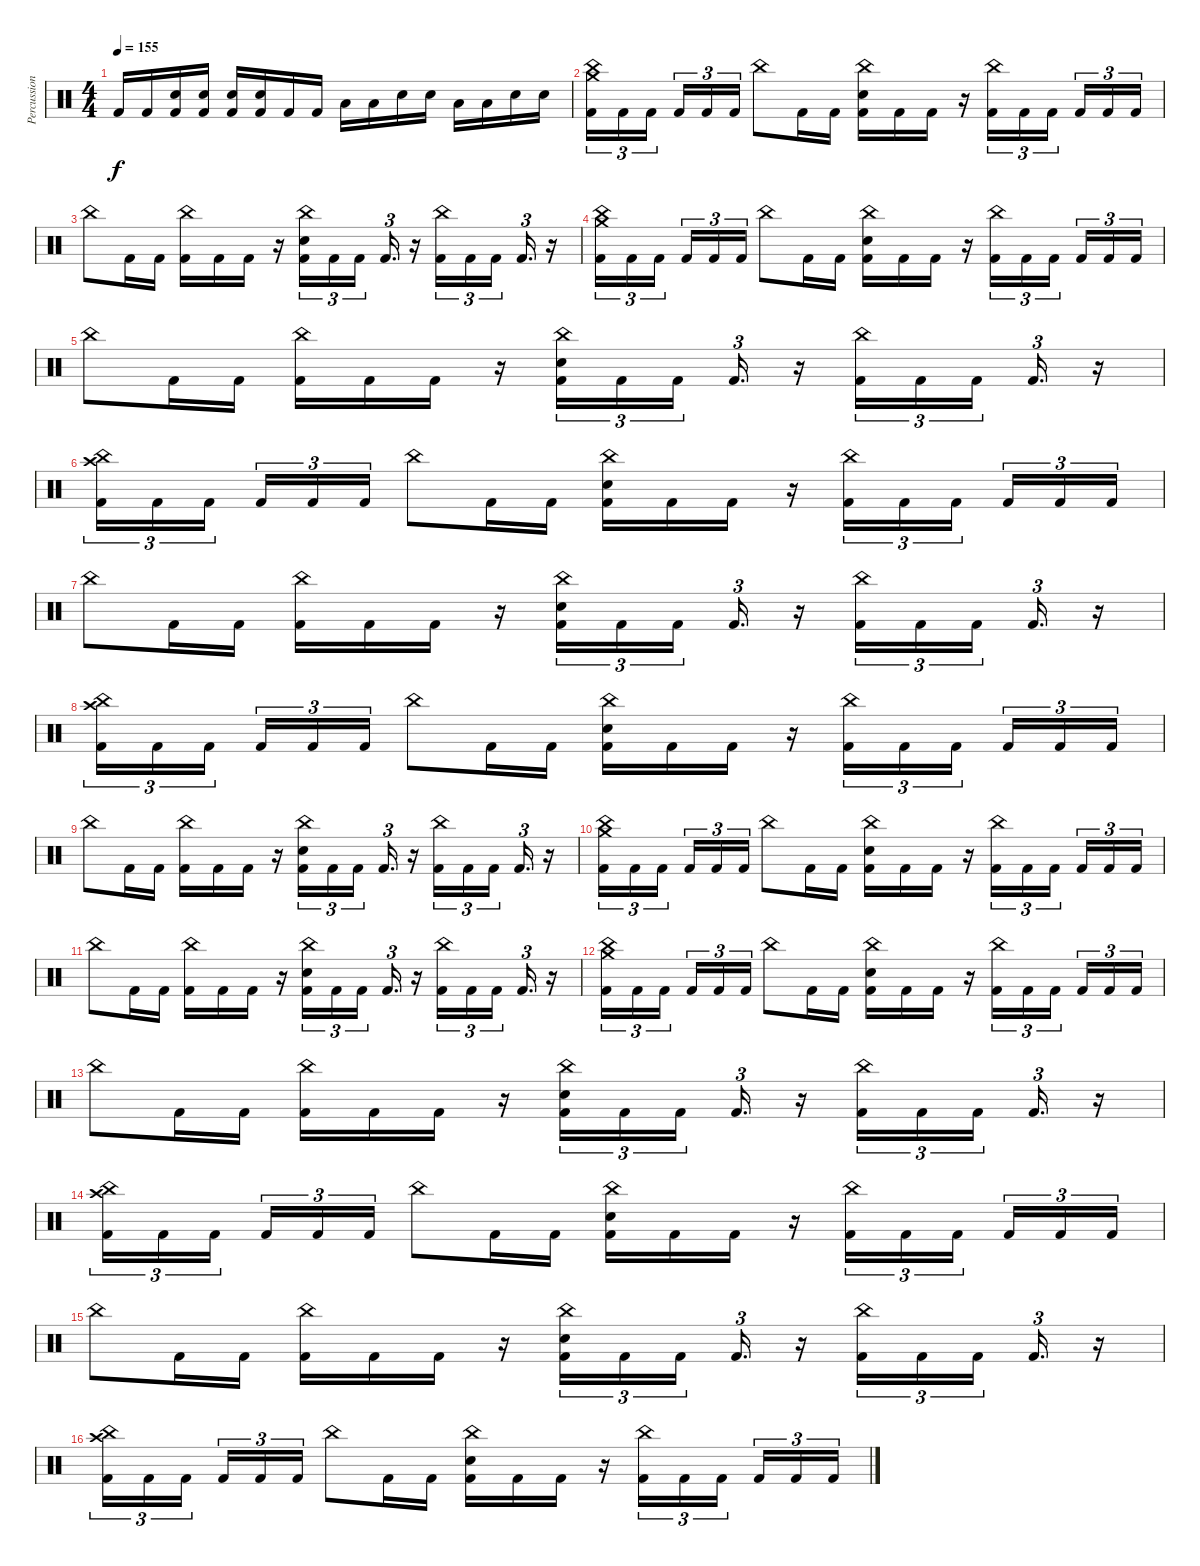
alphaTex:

\track ("Percussion" "Percussion") {instrument percussion}
\staff {score}
\articulation defaults
\ts (4 4)
\tempo 155
\clef neutral
\ks c "Kick (hit) 2".16{dy f} "Kick (hit) 2".16
("Electric Snare (hit)" "Kick (hit) 2").16 ("Electric Snare (hit)" "Kick (hit) 2").16 ("Electric Snare (hit)" "Kick (hit) 2").16 ("Electric Snare (hit)" "Kick (hit) 2").16 "Kick (hit) 2".16 "Kick (hit) 2".16 "Low Tom (hit)".16 "Low Tom (hit)".16 "Electric Snare (hit)".16 "Electric Snare (hit)".16 "Low Tom (hit)".16 "Low Tom (hit)".16 "Electric Snare (hit)".16 "Electric Snare (hit)".16 |
("China (hit)" "Crash medium (hit)" "Kick (hit) 2").16{tu (3 2)} "Kick (hit) 2".16{tu (3 2)} "Kick (hit) 2".16{tu (3 2) beam splitsecondary} "Kick (hit) 2".16{tu (3 2)} "Kick (hit) 2".16{tu (3 2)} "Kick (hit) 2".16{tu (3 2)} "China (hit)".8 "Kick (hit) 2".16 "Kick (hit) 2".16 ("China (hit)" "Electric Snare (hit)" "Kick (hit) 2").16 "Kick (hit) 2".16 "Kick (hit) 2".16 r.16 ("China (hit)" "Kick (hit) 2").16{tu (3 2)} "Kick (hit) 2".16{tu (3 2)} "Kick (hit) 2".16{tu (3 2) beam splitsecondary} "Kick (hit) 2".16{tu (3 2)} "Kick (hit) 2".16{tu (3 2)} "Kick (hit) 2".16{tu (3 2)} |
"China (hit)".8 "Kick (hit) 2".16 "Kick (hit) 2".16 ("China (hit)" "Kick (hit) 2").16 "Kick (hit) 2".16 "Kick (hit) 2".16 r.16 ("China (hit)" "Electric Snare (hit)" "Kick (hit) 2").16{tu (3 2)} "Kick (hit) 2".16{tu (3 2)} "Kick (hit) 2".16{tu (3 2) beam splitsecondary} "Kick (hit) 2".16{d tu (3 2)} r.16 ("China (hit)" "Kick (hit) 2").16{tu (3 2)} "Kick (hit) 2".16{tu (3 2)} "Kick (hit) 2".16{tu (3 2) beam splitsecondary} "Kick (hit) 2".16{d tu (3 2)} r.16 |
("China (hit)" "Crash medium (hit)" "Kick (hit) 2").16{tu (3 2)} "Kick (hit) 2".16{tu (3 2)} "Kick (hit) 2".16{tu (3 2) beam splitsecondary} "Kick (hit) 2".16{tu (3 2)} "Kick (hit) 2".16{tu (3 2)} "Kick (hit) 2".16{tu (3 2)} "China (hit)".8 "Kick (hit) 2".16 "Kick (hit) 2".16 ("China (hit)" "Electric Snare (hit)" "Kick (hit) 2").16 "Kick (hit) 2".16 "Kick (hit) 2".16 r.16 ("China (hit)" "Kick (hit) 2").16{tu (3 2)} "Kick (hit) 2".16{tu (3 2)} "Kick (hit) 2".16{tu (3 2) beam splitsecondary} "Kick (hit) 2".16{tu (3 2)} "Kick (hit) 2".16{tu (3 2)} "Kick (hit) 2".16{tu (3 2)} |
"China (hit)".8 "Kick (hit) 2".16 "Kick (hit) 2".16 ("China (hit)" "Kick (hit) 2").16 "Kick (hit) 2".16 "Kick (hit) 2".16 r.16 ("China (hit)" "Electric Snare (hit)" "Kick (hit) 2").16{tu (3 2)} "Kick (hit) 2".16{tu (3 2)} "Kick (hit) 2".16{tu (3 2) beam splitsecondary} "Kick (hit) 2".16{d tu (3 2)} r.16 ("China (hit)" "Kick (hit) 2").16{tu (3 2)} "Kick (hit) 2".16{tu (3 2)} "Kick (hit) 2".16{tu (3 2) beam splitsecondary} "Kick (hit) 2".16{d tu (3 2)} r.16 |
("China (hit)" "Crash high (hit)" "Kick (hit) 2").16{tu (3 2)} "Kick (hit) 2".16{tu (3 2)} "Kick (hit) 2".16{tu (3 2) beam splitsecondary} "Kick (hit) 2".16{tu (3 2)} "Kick (hit) 2".16{tu (3 2)} "Kick (hit) 2".16{tu (3 2)} "China (hit)".8 "Kick (hit) 2".16 "Kick (hit) 2".16 ("China (hit)" "Electric Snare (hit)" "Kick (hit) 2").16 "Kick (hit) 2".16 "Kick (hit) 2".16 r.16 ("China (hit)" "Kick (hit) 2").16{tu (3 2)} "Kick (hit) 2".16{tu (3 2)} "Kick (hit) 2".16{tu (3 2) beam splitsecondary} "Kick (hit) 2".16{tu (3 2)} "Kick (hit) 2".16{tu (3 2)} "Kick (hit) 2".16{tu (3 2)} |
"China (hit)".8 "Kick (hit) 2".16 "Kick (hit) 2".16 ("China (hit)" "Kick (hit) 2").16 "Kick (hit) 2".16 "Kick (hit) 2".16 r.16 ("China (hit)" "Electric Snare (hit)" "Kick (hit) 2").16{tu (3 2)} "Kick (hit) 2".16{tu (3 2)} "Kick (hit) 2".16{tu (3 2) beam splitsecondary} "Kick (hit) 2".16{d tu (3 2)} r.16 ("China (hit)" "Kick (hit) 2").16{tu (3 2)} "Kick (hit) 2".16{tu (3 2)} "Kick (hit) 2".16{tu (3 2) beam splitsecondary} "Kick (hit) 2".16{d tu (3 2)} r.16 |
("China (hit)" "Crash high (hit)" "Kick (hit) 2").16{tu (3 2)} "Kick (hit) 2".16{tu (3 2)} "Kick (hit) 2".16{tu (3 2) beam splitsecondary} "Kick (hit) 2".16{tu (3 2)} "Kick (hit) 2".16{tu (3 2)} "Kick (hit) 2".16{tu (3 2)} "China (hit)".8 "Kick (hit) 2".16 "Kick (hit) 2".16 ("China (hit)" "Electric Snare (hit)" "Kick (hit) 2").16 "Kick (hit) 2".16 "Kick (hit) 2".16 r.16 ("China (hit)" "Kick (hit) 2").16{tu (3 2)} "Kick (hit) 2".16{tu (3 2)} "Kick (hit) 2".16{tu (3 2) beam splitsecondary} "Kick (hit) 2".16{tu (3 2)} "Kick (hit) 2".16{tu (3 2)} "Kick (hit) 2".16{tu (3 2)} |
"China (hit)".8 "Kick (hit) 2".16 "Kick (hit) 2".16 ("China (hit)" "Kick (hit) 2").16 "Kick (hit) 2".16 "Kick (hit) 2".16 r.16 ("China (hit)" "Electric Snare (hit)" "Kick (hit) 2").16{tu (3 2)} "Kick (hit) 2".16{tu (3 2)} "Kick (hit) 2".16{tu (3 2) beam splitsecondary} "Kick (hit) 2".16{d tu (3 2)} r.16 ("China (hit)" "Kick (hit) 2").16{tu (3 2)} "Kick (hit) 2".16{tu (3 2)} "Kick (hit) 2".16{tu (3 2) beam splitsecondary} "Kick (hit) 2".16{d tu (3 2)} r.16 |
("China (hit)" "Crash medium (hit)" "Kick (hit) 2").16{tu (3 2)} "Kick (hit) 2".16{tu (3 2)} "Kick (hit) 2".16{tu (3 2) beam splitsecondary} "Kick (hit) 2".16{tu (3 2)} "Kick (hit) 2".16{tu (3 2)} "Kick (hit) 2".16{tu (3 2)} "China (hit)".8 "Kick (hit) 2".16 "Kick (hit) 2".16 ("China (hit)" "Electric Snare (hit)" "Kick (hit) 2").16 "Kick (hit) 2".16 "Kick (hit) 2".16 r.16 ("China (hit)" "Kick (hit) 2").16{tu (3 2)} "Kick (hit) 2".16{tu (3 2)} "Kick (hit) 2".16{tu (3 2) beam splitsecondary} "Kick (hit) 2".16{tu (3 2)} "Kick (hit) 2".16{tu (3 2)} "Kick (hit) 2".16{tu (3 2)} |
"China (hit)".8 "Kick (hit) 2".16 "Kick (hit) 2".16 ("China (hit)" "Kick (hit) 2").16 "Kick (hit) 2".16 "Kick (hit) 2".16 r.16 ("China (hit)" "Electric Snare (hit)" "Kick (hit) 2").16{tu (3 2)} "Kick (hit) 2".16{tu (3 2)} "Kick (hit) 2".16{tu (3 2) beam splitsecondary} "Kick (hit) 2".16{d tu (3 2)} r.16 ("China (hit)" "Kick (hit) 2").16{tu (3 2)} "Kick (hit) 2".16{tu (3 2)} "Kick (hit) 2".16{tu (3 2) beam splitsecondary} "Kick (hit) 2".16{d tu (3 2)} r.16 |
("China (hit)" "Crash medium (hit)" "Kick (hit) 2").16{tu (3 2)} "Kick (hit) 2".16{tu (3 2)} "Kick (hit) 2".16{tu (3 2) beam splitsecondary} "Kick (hit) 2".16{tu (3 2)} "Kick (hit) 2".16{tu (3 2)} "Kick (hit) 2".16{tu (3 2)} "China (hit)".8 "Kick (hit) 2".16 "Kick (hit) 2".16 ("China (hit)" "Electric Snare (hit)" "Kick (hit) 2").16 "Kick (hit) 2".16 "Kick (hit) 2".16 r.16 ("China (hit)" "Kick (hit) 2").16{tu (3 2)} "Kick (hit) 2".16{tu (3 2)} "Kick (hit) 2".16{tu (3 2) beam splitsecondary} "Kick (hit) 2".16{tu (3 2)} "Kick (hit) 2".16{tu (3 2)} "Kick (hit) 2".16{tu (3 2)} |
"China (hit)".8 "Kick (hit) 2".16 "Kick (hit) 2".16 ("China (hit)" "Kick (hit) 2").16 "Kick (hit) 2".16 "Kick (hit) 2".16 r.16 ("China (hit)" "Electric Snare (hit)" "Kick (hit) 2").16{tu (3 2)} "Kick (hit) 2".16{tu (3 2)} "Kick (hit) 2".16{tu (3 2) beam splitsecondary} "Kick (hit) 2".16{d tu (3 2)} r.16 ("China (hit)" "Kick (hit) 2").16{tu (3 2)} "Kick (hit) 2".16{tu (3 2)} "Kick (hit) 2".16{tu (3 2) beam splitsecondary} "Kick (hit) 2".16{d tu (3 2)} r.16 |
("China (hit)" "Crash high (hit)" "Kick (hit) 2").16{tu (3 2)} "Kick (hit) 2".16{tu (3 2)} "Kick (hit) 2".16{tu (3 2) beam splitsecondary} "Kick (hit) 2".16{tu (3 2)} "Kick (hit) 2".16{tu (3 2)} "Kick (hit) 2".16{tu (3 2)} "China (hit)".8 "Kick (hit) 2".16 "Kick (hit) 2".16 ("China (hit)" "Electric Snare (hit)" "Kick (hit) 2").16 "Kick (hit) 2".16 "Kick (hit) 2".16 r.16 ("China (hit)" "Kick (hit) 2").16{tu (3 2)} "Kick (hit) 2".16{tu (3 2)} "Kick (hit) 2".16{tu (3 2) beam splitsecondary} "Kick (hit) 2".16{tu (3 2)} "Kick (hit) 2".16{tu (3 2)} "Kick (hit) 2".16{tu (3 2)} |
"China (hit)".8 "Kick (hit) 2".16 "Kick (hit) 2".16 ("China (hit)" "Kick (hit) 2").16 "Kick (hit) 2".16 "Kick (hit) 2".16 r.16 ("China (hit)" "Electric Snare (hit)" "Kick (hit) 2").16{tu (3 2)} "Kick (hit) 2".16{tu (3 2)} "Kick (hit) 2".16{tu (3 2) beam splitsecondary} "Kick (hit) 2".16{d tu (3 2)} r.16 ("China (hit)" "Kick (hit) 2").16{tu (3 2)} "Kick (hit) 2".16{tu (3 2)} "Kick (hit) 2".16{tu (3 2) beam splitsecondary} "Kick (hit) 2".16{d tu (3 2)} r.16 |
("China (hit)" "Crash high (hit)" "Kick (hit) 2").16{tu (3 2)} "Kick (hit) 2".16{tu (3 2)} "Kick (hit) 2".16{tu (3 2) beam splitsecondary} "Kick (hit) 2".16{tu (3 2)} "Kick (hit) 2".16{tu (3 2)} "Kick (hit) 2".16{tu (3 2)} "China (hit)".8 "Kick (hit) 2".16 "Kick (hit) 2".16 ("China (hit)" "Electric Snare (hit)" "Kick (hit) 2").16 "Kick (hit) 2".16 "Kick (hit) 2".16 r.16 ("China (hit)" "Kick (hit) 2").16{tu (3 2)} "Kick (hit) 2".16{tu (3 2)} "Kick (hit) 2".16{tu (3 2) beam splitsecondary} "Kick (hit) 2".16{tu (3 2)} "Kick (hit) 2".16{tu (3 2)} "Kick (hit) 2".16{tu (3 2)}
